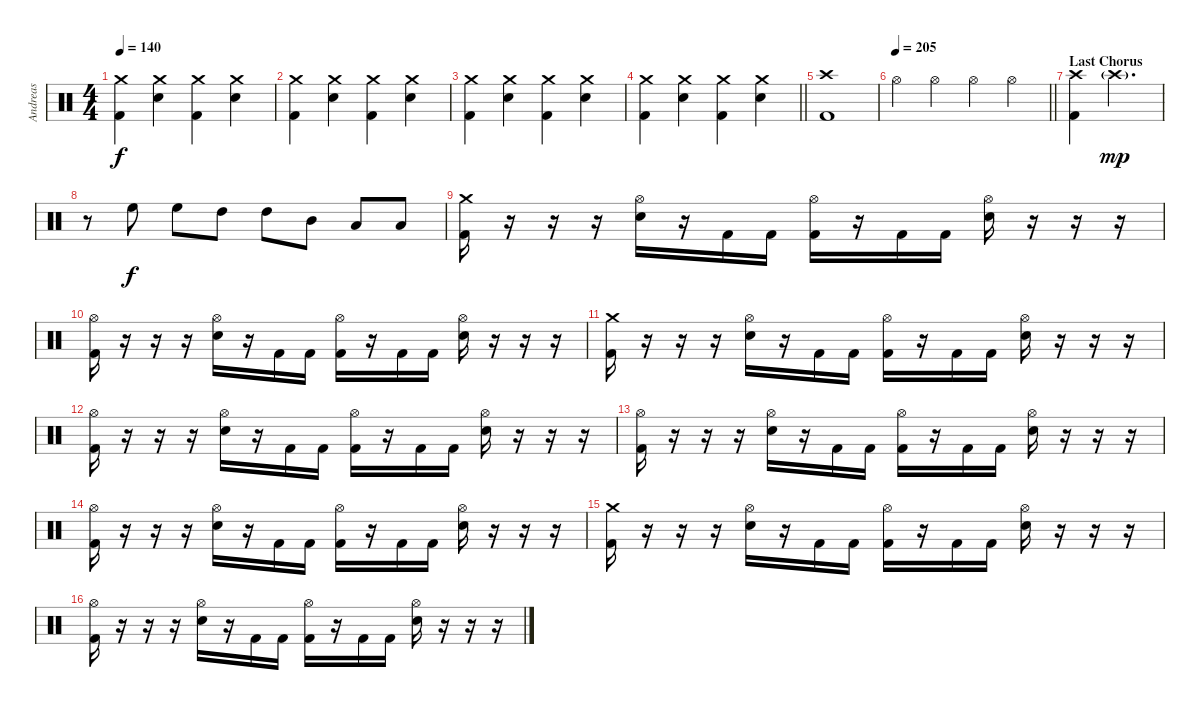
\track ("Andreas" "Andreas") {instrument percussion}
\staff {score}
\articulation defaults
\ts (4 4)
\tempo 140
\clef neutral
\ks c
("Crash medium (hit)" "Kick (hit) 2").4{dy f} ("Crash medium (hit)" "Electric Snare (hit)").4 ("Crash medium (hit)" "Kick (hit) 2").4 ("Crash medium (hit)" "Electric Snare (hit)").4 |
("Crash medium (hit)" "Kick (hit) 2").4 ("Crash medium (hit)" "Electric Snare (hit)").4 ("Crash medium (hit)" "Kick (hit) 2").4 ("Crash medium (hit)" "Electric Snare (hit)").4 |
("Crash medium (hit)" "Kick (hit) 2").4 ("Crash medium (hit)" "Electric Snare (hit)").4 ("Crash medium (hit)" "Kick (hit) 2").4 ("Crash medium (hit)" "Electric Snare (hit)").4 |
\barLineRight lightlight
("Crash medium (hit)" "Kick (hit) 2").4 ("Crash medium (hit)" "Electric Snare (hit)").4 ("Crash medium (hit)" "Kick (hit) 2").4 ("Crash medium (hit)" "Electric Snare (hit)").4 |
("Crash high (hit)" "Kick (hit) 2").1 |
\tempo 205
\barLineRight lightlight "Hi-Hat (open)".4 "Hi-Hat (open)".4 "Hi-Hat (open)".4 "Hi-Hat (open)".4
|
\section ("" "Last Chorus")
("Crash high (hit)" "Kick (hit) 2").4 "Crash high (hit)"{g}.2{d dy mp} |
r.8 "High Floor Tom (hit)".8{dy f} "High Floor Tom (hit)".8 "High Tom (hit)".8 "High Tom (hit)".8 "Mid Tom (hit)".8 "Low Tom (hit)".8 "Low Tom (hit)".8 |
("Crash medium (hit)" "Kick (hit) 2").16 r.16 r.16 r.16 ("Hi-Hat (open)" "Electric Snare (hit)").16 r.16 "Kick (hit) 2".16 "Kick (hit) 2".16 ("Hi-Hat (open)" "Kick (hit) 2").16 r.16 "Kick (hit) 2".16 "Kick (hit) 2".16 ("Hi-Hat (open)" "Electric Snare (hit)").16 r.16 r.16 r.16 |
("Hi-Hat (open)" "Kick (hit) 2").16 r.16 r.16 r.16 ("Hi-Hat (open)" "Electric Snare (hit)").16 r.16 "Kick (hit) 2".16 "Kick (hit) 2".16 ("Hi-Hat (open)" "Kick (hit) 2").16 r.16 "Kick (hit) 2".16 "Kick (hit) 2".16 ("Hi-Hat (open)" "Electric Snare (hit)").16 r.16 r.16 r.16 |
("Crash medium (hit)" "Kick (hit) 2").16 r.16 r.16 r.16 ("Hi-Hat (open)" "Electric Snare (hit)").16 r.16 "Kick (hit) 2".16 "Kick (hit) 2".16 ("Hi-Hat (open)" "Kick (hit) 2").16 r.16 "Kick (hit) 2".16 "Kick (hit) 2".16 ("Hi-Hat (open)" "Electric Snare (hit)").16 r.16 r.16 r.16 |
("Hi-Hat (open)" "Kick (hit) 2").16 r.16 r.16 r.16 ("Hi-Hat (open)" "Electric Snare (hit)").16 r.16 "Kick (hit) 2".16 "Kick (hit) 2".16 ("Hi-Hat (open)" "Kick (hit) 2").16 r.16 "Kick (hit) 2".16 "Kick (hit) 2".16 ("Hi-Hat (open)" "Electric Snare (hit)").16 r.16 r.16 r.16 |
("Hi-Hat (open)" "Kick (hit) 2").16 r.16 r.16 r.16 ("Hi-Hat (open)" "Electric Snare (hit)").16 r.16 "Kick (hit) 2".16 "Kick (hit) 2".16 ("Hi-Hat (open)" "Kick (hit) 2").16 r.16 "Kick (hit) 2".16 "Kick (hit) 2".16 ("Hi-Hat (open)" "Electric Snare (hit)").16 r.16 r.16 r.16 |
("Hi-Hat (open)" "Kick (hit) 2").16 r.16 r.16 r.16 ("Hi-Hat (open)" "Electric Snare (hit)").16 r.16 "Kick (hit) 2".16 "Kick (hit) 2".16 ("Hi-Hat (open)" "Kick (hit) 2").16 r.16 "Kick (hit) 2".16 "Kick (hit) 2".16 ("Hi-Hat (open)" "Electric Snare (hit)").16 r.16 r.16 r.16 |
("Crash medium (hit)" "Kick (hit) 2").16 r.16 r.16 r.16 ("Hi-Hat (open)" "Electric Snare (hit)").16 r.16 "Kick (hit) 2".16 "Kick (hit) 2".16 ("Hi-Hat (open)" "Kick (hit) 2").16 r.16 "Kick (hit) 2".16 "Kick (hit) 2".16 ("Hi-Hat (open)" "Electric Snare (hit)").16 r.16 r.16 r.16 |
("Hi-Hat (open)" "Kick (hit) 2").16 r.16 r.16 r.16 ("Hi-Hat (open)" "Electric Snare (hit)").16 r.16 "Kick (hit) 2".16 "Kick (hit) 2".16 ("Hi-Hat (open)" "Kick (hit) 2").16 r.16 "Kick (hit) 2".16 "Kick (hit) 2".16 ("Hi-Hat (open)" "Electric Snare (hit)").16 r.16 r.16 r.16
